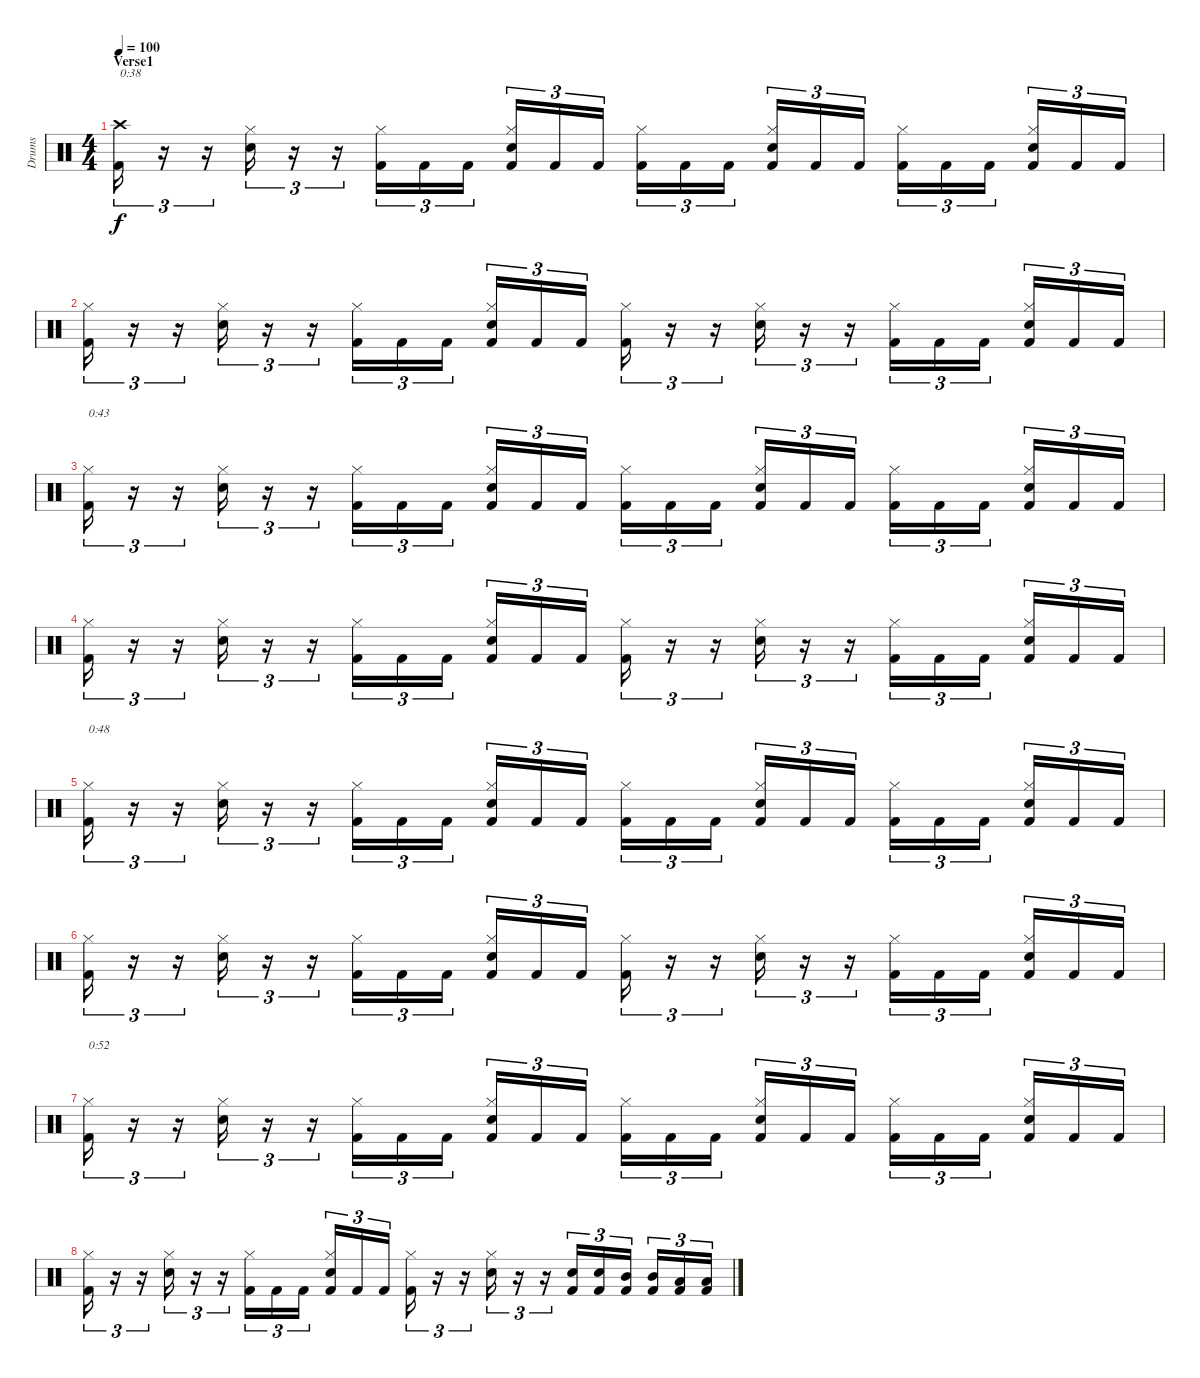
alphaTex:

\track ("Drums" "Drums") {instrument percussion}
\staff {score}
\articulation defaults
\ts (4 4)
\section ("" "Verse1")
\tempo 100
\clef neutral
\ks c
("Crash high (hit)" "Kick (hit) 2").16{tu (3 2) txt "0:38" dy f} r.16{tu (3 2)} r.16{tu (3 2)} ("Hi-Hat (closed)" "Snare (hit) 2").16{tu (3 2)} r.16{tu (3 2)} r.16{tu (3 2)} ("Hi-Hat (closed)" "Kick (hit) 2").16{tu (3 2)} "Kick (hit) 2".16{tu (3 2)} "Kick (hit) 2".16{tu (3 2)} ("Hi-Hat (closed)" "Snare (hit) 2" "Kick (hit) 2").16{tu (3 2)} "Kick (hit) 2".16{tu (3 2)} "Kick (hit) 2".16{tu (3 2)} ("Hi-Hat (closed)" "Kick (hit) 2").16{tu (3 2)} "Kick (hit) 2".16{tu (3 2)} "Kick (hit) 2".16{tu (3 2)} ("Hi-Hat (closed)" "Snare (hit) 2" "Kick (hit) 2").16{tu (3 2)} "Kick (hit) 2".16{tu (3 2)} "Kick (hit) 2".16{tu (3 2)} ("Hi-Hat (closed)" "Kick (hit) 2").16{tu (3 2)} "Kick (hit) 2".16{tu (3 2)} "Kick (hit) 2".16{tu (3 2)} ("Hi-Hat (closed)" "Snare (hit) 2" "Kick (hit) 2").16{tu (3 2)} "Kick (hit) 2".16{tu (3 2)} "Kick (hit) 2".16{tu (3 2)} |
("Hi-Hat (closed)" "Kick (hit) 2").16{tu (3 2)} r.16{tu (3 2)} r.16{tu (3 2)} ("Hi-Hat (closed)" "Snare (hit) 2").16{tu (3 2)} r.16{tu (3 2)} r.16{tu (3 2)} ("Hi-Hat (closed)" "Kick (hit) 2").16{tu (3 2)} "Kick (hit) 2".16{tu (3 2)} "Kick (hit) 2".16{tu (3 2)} ("Hi-Hat (closed)" "Snare (hit) 2" "Kick (hit) 2").16{tu (3 2)} "Kick (hit) 2".16{tu (3 2)} "Kick (hit) 2".16{tu (3 2)} ("Hi-Hat (closed)" "Kick (hit) 2").16{tu (3 2)} r.16{tu (3 2)} r.16{tu (3 2)} ("Hi-Hat (closed)" "Snare (hit) 2").16{tu (3 2)} r.16{tu (3 2)} r.16{tu (3 2)} ("Hi-Hat (closed)" "Kick (hit) 2").16{tu (3 2)} "Kick (hit) 2".16{tu (3 2)} "Kick (hit) 2".16{tu (3 2)} ("Hi-Hat (closed)" "Snare (hit) 2" "Kick (hit) 2").16{tu (3 2)} "Kick (hit) 2".16{tu (3 2)} "Kick (hit) 2".16{tu (3 2)} |
("Hi-Hat (closed)" "Kick (hit) 2").16{tu (3 2) txt "0:43"} r.16{tu (3 2)} r.16{tu (3 2)} ("Hi-Hat (closed)" "Snare (hit) 2").16{tu (3 2)} r.16{tu (3 2)} r.16{tu (3 2)} ("Hi-Hat (closed)" "Kick (hit) 2").16{tu (3 2)} "Kick (hit) 2".16{tu (3 2)} "Kick (hit) 2".16{tu (3 2)} ("Hi-Hat (closed)" "Snare (hit) 2" "Kick (hit) 2").16{tu (3 2)} "Kick (hit) 2".16{tu (3 2)} "Kick (hit) 2".16{tu (3 2)} ("Hi-Hat (closed)" "Kick (hit) 2").16{tu (3 2)} "Kick (hit) 2".16{tu (3 2)} "Kick (hit) 2".16{tu (3 2)} ("Hi-Hat (closed)" "Snare (hit) 2" "Kick (hit) 2").16{tu (3 2)} "Kick (hit) 2".16{tu (3 2)} "Kick (hit) 2".16{tu (3 2)} ("Hi-Hat (closed)" "Kick (hit) 2").16{tu (3 2)} "Kick (hit) 2".16{tu (3 2)} "Kick (hit) 2".16{tu (3 2)} ("Hi-Hat (closed)" "Snare (hit) 2" "Kick (hit) 2").16{tu (3 2)} "Kick (hit) 2".16{tu (3 2)} "Kick (hit) 2".16{tu (3 2)} |
("Hi-Hat (closed)" "Kick (hit) 2").16{tu (3 2)} r.16{tu (3 2)} r.16{tu (3 2)} ("Hi-Hat (closed)" "Snare (hit) 2").16{tu (3 2)} r.16{tu (3 2)} r.16{tu (3 2)} ("Hi-Hat (closed)" "Kick (hit) 2").16{tu (3 2)} "Kick (hit) 2".16{tu (3 2)} "Kick (hit) 2".16{tu (3 2)} ("Hi-Hat (closed)" "Snare (hit) 2" "Kick (hit) 2").16{tu (3 2)} "Kick (hit) 2".16{tu (3 2)} "Kick (hit) 2".16{tu (3 2)} ("Hi-Hat (closed)" "Kick (hit) 2").16{tu (3 2)} r.16{tu (3 2)} r.16{tu (3 2)} ("Hi-Hat (closed)" "Snare (hit) 2").16{tu (3 2)} r.16{tu (3 2)} r.16{tu (3 2)} ("Hi-Hat (closed)" "Kick (hit) 2").16{tu (3 2)} "Kick (hit) 2".16{tu (3 2)} "Kick (hit) 2".16{tu (3 2)} ("Hi-Hat (closed)" "Snare (hit) 2" "Kick (hit) 2").16{tu (3 2)} "Kick (hit) 2".16{tu (3 2)} "Kick (hit) 2".16{tu (3 2)} |
("Hi-Hat (closed)" "Kick (hit) 2").16{tu (3 2) txt "0:48"} r.16{tu (3 2)} r.16{tu (3 2)} ("Hi-Hat (closed)" "Snare (hit) 2").16{tu (3 2)} r.16{tu (3 2)} r.16{tu (3 2)} ("Hi-Hat (closed)" "Kick (hit) 2").16{tu (3 2)} "Kick (hit) 2".16{tu (3 2)} "Kick (hit) 2".16{tu (3 2)} ("Hi-Hat (closed)" "Snare (hit) 2" "Kick (hit) 2").16{tu (3 2)} "Kick (hit) 2".16{tu (3 2)} "Kick (hit) 2".16{tu (3 2)} ("Hi-Hat (closed)" "Kick (hit) 2").16{tu (3 2)} "Kick (hit) 2".16{tu (3 2)} "Kick (hit) 2".16{tu (3 2)} ("Hi-Hat (closed)" "Snare (hit) 2" "Kick (hit) 2").16{tu (3 2)} "Kick (hit) 2".16{tu (3 2)} "Kick (hit) 2".16{tu (3 2)} ("Hi-Hat (closed)" "Kick (hit) 2").16{tu (3 2)} "Kick (hit) 2".16{tu (3 2)} "Kick (hit) 2".16{tu (3 2)} ("Hi-Hat (closed)" "Snare (hit) 2" "Kick (hit) 2").16{tu (3 2)} "Kick (hit) 2".16{tu (3 2)} "Kick (hit) 2".16{tu (3 2)} |
("Hi-Hat (closed)" "Kick (hit) 2").16{tu (3 2)} r.16{tu (3 2)} r.16{tu (3 2)} ("Hi-Hat (closed)" "Snare (hit) 2").16{tu (3 2)} r.16{tu (3 2)} r.16{tu (3 2)} ("Hi-Hat (closed)" "Kick (hit) 2").16{tu (3 2)} "Kick (hit) 2".16{tu (3 2)} "Kick (hit) 2".16{tu (3 2)} ("Hi-Hat (closed)" "Snare (hit) 2" "Kick (hit) 2").16{tu (3 2)} "Kick (hit) 2".16{tu (3 2)} "Kick (hit) 2".16{tu (3 2)} ("Hi-Hat (closed)" "Kick (hit) 2").16{tu (3 2)} r.16{tu (3 2)} r.16{tu (3 2)} ("Hi-Hat (closed)" "Snare (hit) 2").16{tu (3 2)} r.16{tu (3 2)} r.16{tu (3 2)} ("Hi-Hat (closed)" "Kick (hit) 2").16{tu (3 2)} "Kick (hit) 2".16{tu (3 2)} "Kick (hit) 2".16{tu (3 2)} ("Hi-Hat (closed)" "Snare (hit) 2" "Kick (hit) 2").16{tu (3 2)} "Kick (hit) 2".16{tu (3 2)} "Kick (hit) 2".16{tu (3 2)} |
("Hi-Hat (closed)" "Kick (hit) 2").16{tu (3 2) txt "0:52"} r.16{tu (3 2)} r.16{tu (3 2)} ("Hi-Hat (closed)" "Snare (hit) 2").16{tu (3 2)} r.16{tu (3 2)} r.16{tu (3 2)} ("Hi-Hat (closed)" "Kick (hit) 2").16{tu (3 2)} "Kick (hit) 2".16{tu (3 2)} "Kick (hit) 2".16{tu (3 2)} ("Hi-Hat (closed)" "Snare (hit) 2" "Kick (hit) 2").16{tu (3 2)} "Kick (hit) 2".16{tu (3 2)} "Kick (hit) 2".16{tu (3 2)} ("Hi-Hat (closed)" "Kick (hit) 2").16{tu (3 2)} "Kick (hit) 2".16{tu (3 2)} "Kick (hit) 2".16{tu (3 2)} ("Hi-Hat (closed)" "Snare (hit) 2" "Kick (hit) 2").16{tu (3 2)} "Kick (hit) 2".16{tu (3 2)} "Kick (hit) 2".16{tu (3 2)} ("Hi-Hat (closed)" "Kick (hit) 2").16{tu (3 2)} "Kick (hit) 2".16{tu (3 2)} "Kick (hit) 2".16{tu (3 2)} ("Hi-Hat (closed)" "Snare (hit) 2" "Kick (hit) 2").16{tu (3 2)} "Kick (hit) 2".16{tu (3 2)} "Kick (hit) 2".16{tu (3 2)} |
("Hi-Hat (closed)" "Kick (hit) 2").16{tu (3 2)} r.16{tu (3 2)} r.16{tu (3 2)} ("Hi-Hat (closed)" "Snare (hit) 2").16{tu (3 2)} r.16{tu (3 2)} r.16{tu (3 2)} ("Hi-Hat (closed)" "Kick (hit) 2").16{tu (3 2)} "Kick (hit) 2".16{tu (3 2)} "Kick (hit) 2".16{tu (3 2)} ("Hi-Hat (closed)" "Snare (hit) 2" "Kick (hit) 2").16{tu (3 2)} "Kick (hit) 2".16{tu (3 2)} "Kick (hit) 2".16{tu (3 2)} ("Hi-Hat (closed)" "Kick (hit) 2").16{tu (3 2)} r.16{tu (3 2)} r.16{tu (3 2)} ("Hi-Hat (closed)" "Snare (hit) 2").16{tu (3 2)} r.16{tu (3 2)} r.16{tu (3 2)} ("Snare (hit) 2" "Kick (hit) 2").16{tu (3 2)} ("Snare (hit) 2" "Kick (hit) 2").16{tu (3 2)} ("Mid Tom (hit)" "Kick (hit) 2").16{tu (3 2)} ("Mid Tom (hit)" "Kick (hit) 2").16{tu (3 2)} ("Low Tom (hit)" "Kick (hit) 2").16{tu (3 2)} ("Low Tom (hit)" "Kick (hit) 2").16{tu (3 2)}
